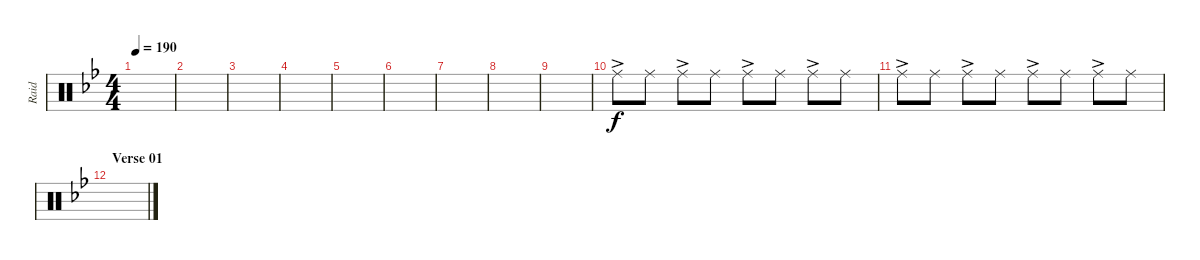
\track ("Raid" "Raid") {instrument percussion}
\staff {score}
\articulation defaults
\ts (4 4)
\tempo 190
\clef neutral
\ks bb
|
|
|
|
|
|
|
|
|
"Ride (middle)"{ac}.8 "Ride (middle)".8 "Ride (middle)"{ac}.8 "Ride (middle)".8 "Ride (middle)"{ac}.8 "Ride (middle)".8 "Ride (middle)"{ac}.8 "Ride (middle)".8 |
"Ride (middle)"{ac}.8 "Ride (middle)".8 "Ride (middle)"{ac}.8 "Ride (middle)".8 "Ride (middle)"{ac}.8 "Ride (middle)".8 "Ride (middle)"{ac}.8 "Ride (middle)".8 |
\section ("" "Verse 01")
